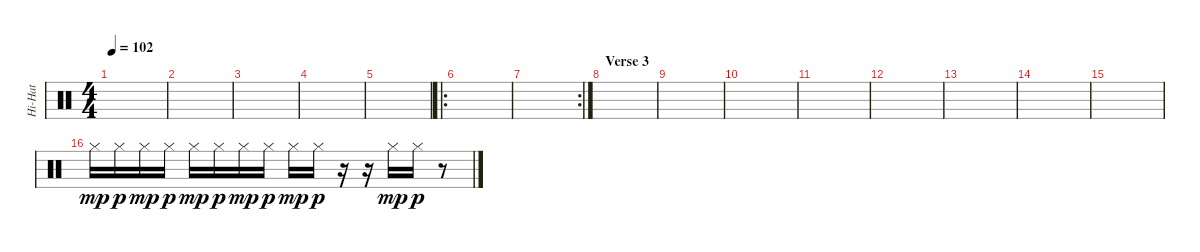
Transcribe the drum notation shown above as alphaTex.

\track ("Hi-Hat" "Hi-Hat") {instrument percussion}
\staff {score}
\articulation defaults
\ts (4 4)
\tempo 102
\clef neutral
\ks c
|
|
|
|
|
\ro
|
\rc 2
|
\section ("" "Verse 3")
|
|
|
|
|
|
|
|
"Hi-Hat (closed)".16{dy mp} "Hi-Hat (closed)".16{dy p} "Hi-Hat (closed)".16{dy mp} "Hi-Hat (closed)".16{dy p} "Hi-Hat (closed)".16{dy mp} "Hi-Hat (closed)".16{dy p} "Hi-Hat (closed)".16{dy mp} "Hi-Hat (closed)".16{dy p} "Hi-Hat (closed)".16{dy mp} "Hi-Hat (closed)".16{dy p} r.16 r.16 "Hi-Hat (closed)".16{dy mp} "Hi-Hat (closed)".16{dy p} r.8
